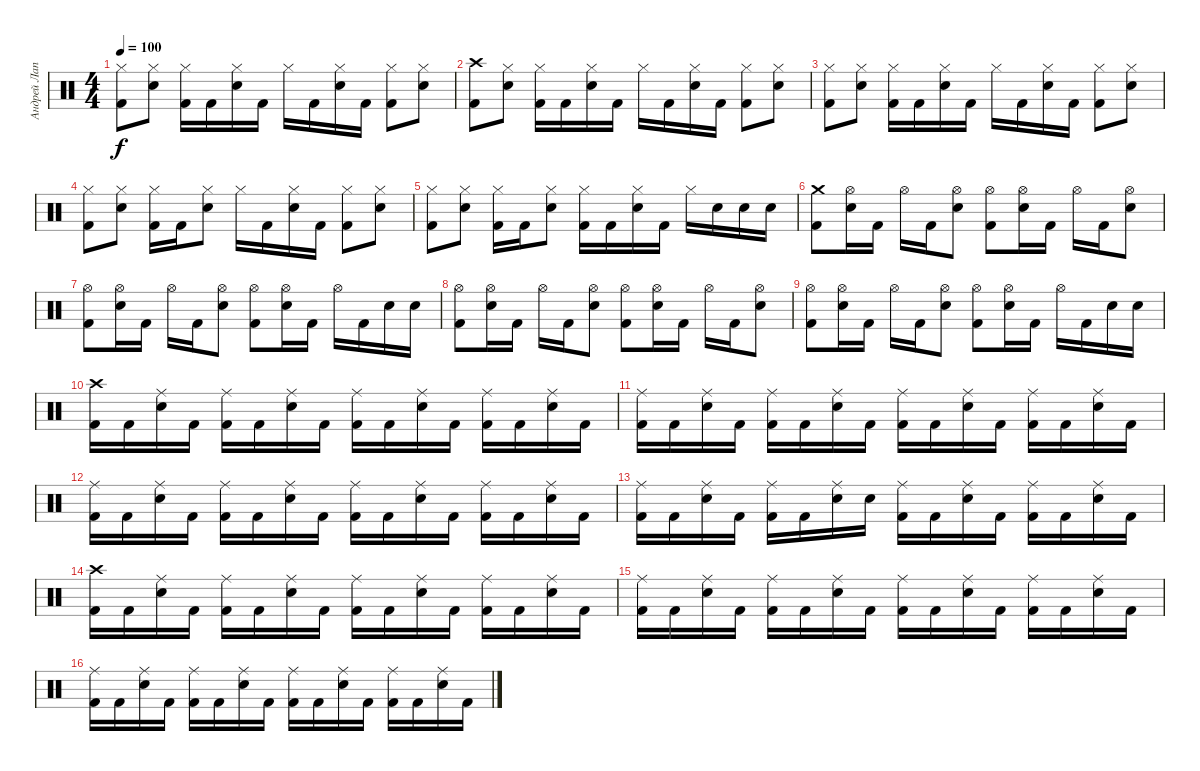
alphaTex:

\track ("Андрей Лаптев" "Андрей Лап") {instrument percussion}
\staff {score}
\articulation defaults
\ts (4 4)
\tempo 100
\clef neutral
\ks c
("Hi-Hat (closed)" "Kick (hit) 2").8{dy f} ("Hi-Hat (closed)" "Snare (hit) 2").8 ("Hi-Hat (closed)" "Kick (hit) 2").16 "Kick (hit) 2".16 ("Hi-Hat (closed)" "Snare (hit) 2").16 "Kick (hit) 2".16 "Hi-Hat (closed)".16 "Kick (hit) 2".16 ("Hi-Hat (closed)" "Snare (hit) 2").16 "Kick (hit) 2".16 ("Hi-Hat (closed)" "Kick (hit) 2").8 ("Hi-Hat (closed)" "Snare (hit) 2").8 |
("Crash high (hit)" "Kick (hit) 2").8 ("Hi-Hat (closed)" "Snare (hit) 2").8 ("Hi-Hat (closed)" "Kick (hit) 2").16 "Kick (hit) 2".16 ("Hi-Hat (closed)" "Snare (hit) 2").16 "Kick (hit) 2".16 "Hi-Hat (closed)".16 "Kick (hit) 2".16 ("Hi-Hat (closed)" "Snare (hit) 2").16 "Kick (hit) 2".16 ("Hi-Hat (closed)" "Kick (hit) 2").8 ("Hi-Hat (closed)" "Snare (hit) 2").8 |
("Hi-Hat (closed)" "Kick (hit) 2").8 ("Hi-Hat (closed)" "Snare (hit) 2").8 ("Hi-Hat (closed)" "Kick (hit) 2").16 "Kick (hit) 2".16 ("Hi-Hat (closed)" "Snare (hit) 2").16 "Kick (hit) 2".16 "Hi-Hat (closed)".16 "Kick (hit) 2".16 ("Hi-Hat (closed)" "Snare (hit) 2").16 "Kick (hit) 2".16 ("Hi-Hat (closed)" "Kick (hit) 2").8 ("Hi-Hat (closed)" "Snare (hit) 2").8 |
("Hi-Hat (closed)" "Kick (hit) 2").8 ("Hi-Hat (closed)" "Snare (hit) 2").8 ("Hi-Hat (closed)" "Kick (hit) 2").16 "Kick (hit) 2".16 ("Hi-Hat (closed)" "Snare (hit) 2").8 "Hi-Hat (closed)".16 "Kick (hit) 2".16 ("Hi-Hat (closed)" "Snare (hit) 2").16 "Kick (hit) 2".16 ("Hi-Hat (closed)" "Kick (hit) 2").8 ("Hi-Hat (closed)" "Snare (hit) 2").8 |
("Hi-Hat (closed)" "Kick (hit) 2").8 ("Hi-Hat (closed)" "Snare (hit) 2").8 ("Hi-Hat (closed)" "Kick (hit) 2").16 "Kick (hit) 2".16 ("Hi-Hat (closed)" "Snare (hit) 2").8 ("Hi-Hat (closed)" "Kick (hit) 2").16 "Kick (hit) 2".16 ("Hi-Hat (closed)" "Snare (hit) 2").16 "Kick (hit) 2".16 "Hi-Hat (closed)".16 "Snare (hit) 2".16 "Snare (hit) 2".16 "Snare (hit) 2".16 |
("Crash medium (hit)" "Kick (hit) 2").8 ("Hi-Hat (open)" "Snare (hit) 2").16 "Kick (hit) 2".16 "Hi-Hat (open)".16 "Kick (hit) 2".16 ("Hi-Hat (open)" "Snare (hit) 2").8 ("Hi-Hat (open)" "Kick (hit) 2").8 ("Hi-Hat (open)" "Snare (hit) 2").16 "Kick (hit) 2".16 "Hi-Hat (open)".16 "Kick (hit) 2".16 ("Hi-Hat (open)" "Snare (hit) 2").8 |
("Hi-Hat (open)" "Kick (hit) 2").8 ("Hi-Hat (open)" "Snare (hit) 2").16 "Kick (hit) 2".16 "Hi-Hat (open)".16 "Kick (hit) 2".16 ("Hi-Hat (open)" "Snare (hit) 2").8 ("Hi-Hat (open)" "Kick (hit) 2").8 ("Hi-Hat (open)" "Snare (hit) 2").16 "Kick (hit) 2".16 "Hi-Hat (open)".16 "Kick (hit) 2".16 "Snare (hit) 2".16 "Snare (hit) 2".16 |
("Hi-Hat (open)" "Kick (hit) 2").8 ("Hi-Hat (open)" "Snare (hit) 2").16 "Kick (hit) 2".16 "Hi-Hat (open)".16 "Kick (hit) 2".16 ("Hi-Hat (open)" "Snare (hit) 2").8 ("Hi-Hat (open)" "Kick (hit) 2").8 ("Hi-Hat (open)" "Snare (hit) 2").16 "Kick (hit) 2".16 "Hi-Hat (open)".16 "Kick (hit) 2".16 ("Hi-Hat (open)" "Snare (hit) 2").8 |
("Hi-Hat (open)" "Kick (hit) 2").8 ("Hi-Hat (open)" "Snare (hit) 2").16 "Kick (hit) 2".16 "Hi-Hat (open)".16 "Kick (hit) 2".16 ("Hi-Hat (open)" "Snare (hit) 2").8 ("Hi-Hat (open)" "Kick (hit) 2").8 ("Hi-Hat (open)" "Snare (hit) 2").16 "Kick (hit) 2".16 "Hi-Hat (open)".16 "Kick (hit) 2".16 "Snare (hit) 2".16 "Snare (hit) 2".16 |
("Crash high (hit)" "Kick (hit) 2").16 "Kick (hit) 2".16 ("Ride (middle)" "Snare (hit) 2").16 "Kick (hit) 2".16 ("Ride (middle)" "Kick (hit) 2").16 "Kick (hit) 2".16 ("Ride (middle)" "Snare (hit) 2").16 "Kick (hit) 2".16 ("Ride (middle)" "Kick (hit) 2").16 "Kick (hit) 2".16 ("Ride (middle)" "Snare (hit) 2").16 "Kick (hit) 2".16 ("Ride (middle)" "Kick (hit) 2").16 "Kick (hit) 2".16 ("Ride (middle)" "Snare (hit) 2").16 "Kick (hit) 2".16 |
("Ride (middle)" "Kick (hit) 2").16 "Kick (hit) 2".16 ("Ride (middle)" "Snare (hit) 2").16 "Kick (hit) 2".16 ("Ride (middle)" "Kick (hit) 2").16 "Kick (hit) 2".16 ("Ride (middle)" "Snare (hit) 2").16 "Kick (hit) 2".16 ("Ride (middle)" "Kick (hit) 2").16 "Kick (hit) 2".16 ("Ride (middle)" "Snare (hit) 2").16 "Kick (hit) 2".16 ("Ride (middle)" "Kick (hit) 2").16 "Kick (hit) 2".16 ("Ride (middle)" "Snare (hit) 2").16 "Kick (hit) 2".16 |
("Ride (middle)" "Kick (hit) 2").16 "Kick (hit) 2".16 ("Ride (middle)" "Snare (hit) 2").16 "Kick (hit) 2".16 ("Ride (middle)" "Kick (hit) 2").16 "Kick (hit) 2".16 ("Ride (middle)" "Snare (hit) 2").16 "Kick (hit) 2".16 ("Ride (middle)" "Kick (hit) 2").16 "Kick (hit) 2".16 ("Ride (middle)" "Snare (hit) 2").16 "Kick (hit) 2".16 ("Ride (middle)" "Kick (hit) 2").16 "Kick (hit) 2".16 ("Ride (middle)" "Snare (hit) 2").16 "Kick (hit) 2".16 |
("Ride (middle)" "Kick (hit) 2").16 "Kick (hit) 2".16 ("Ride (middle)" "Snare (hit) 2").16 "Kick (hit) 2".16 ("Ride (middle)" "Kick (hit) 2").16 "Kick (hit) 2".16 ("Ride (middle)" "Snare (hit) 2").16 "Snare (hit)".16 ("Ride (middle)" "Kick (hit) 2").16 "Kick (hit) 2".16 ("Ride (middle)" "Snare (hit) 2").16 "Kick (hit) 2".16 ("Ride (middle)" "Kick (hit) 2").16 "Kick (hit) 2".16 ("Ride (middle)" "Snare (hit) 2").16 "Kick (hit) 2".16 |
("Crash high (hit)" "Kick (hit) 2").16 "Kick (hit) 2".16 ("Ride (middle)" "Snare (hit) 2").16 "Kick (hit) 2".16 ("Ride (middle)" "Kick (hit) 2").16 "Kick (hit) 2".16 ("Ride (middle)" "Snare (hit) 2").16 "Kick (hit) 2".16 ("Ride (middle)" "Kick (hit) 2").16 "Kick (hit) 2".16 ("Ride (middle)" "Snare (hit) 2").16 "Kick (hit) 2".16 ("Ride (middle)" "Kick (hit) 2").16 "Kick (hit) 2".16 ("Ride (middle)" "Snare (hit) 2").16 "Kick (hit) 2".16 |
("Ride (middle)" "Kick (hit) 2").16 "Kick (hit) 2".16 ("Ride (middle)" "Snare (hit) 2").16 "Kick (hit) 2".16 ("Ride (middle)" "Kick (hit) 2").16 "Kick (hit) 2".16 ("Ride (middle)" "Snare (hit) 2").16 "Kick (hit) 2".16 ("Ride (middle)" "Kick (hit) 2").16 "Kick (hit) 2".16 ("Ride (middle)" "Snare (hit) 2").16 "Kick (hit) 2".16 ("Ride (middle)" "Kick (hit) 2").16 "Kick (hit) 2".16 ("Ride (middle)" "Snare (hit) 2").16 "Kick (hit) 2".16 |
("Ride (middle)" "Kick (hit) 2").16 "Kick (hit) 2".16 ("Ride (middle)" "Snare (hit) 2").16 "Kick (hit) 2".16 ("Ride (middle)" "Kick (hit) 2").16 "Kick (hit) 2".16 ("Ride (middle)" "Snare (hit) 2").16 "Kick (hit) 2".16 ("Ride (middle)" "Kick (hit) 2").16 "Kick (hit) 2".16 ("Ride (middle)" "Snare (hit) 2").16 "Kick (hit) 2".16 ("Ride (middle)" "Kick (hit) 2").16 "Kick (hit) 2".16 ("Ride (middle)" "Snare (hit) 2").16 "Kick (hit) 2".16
